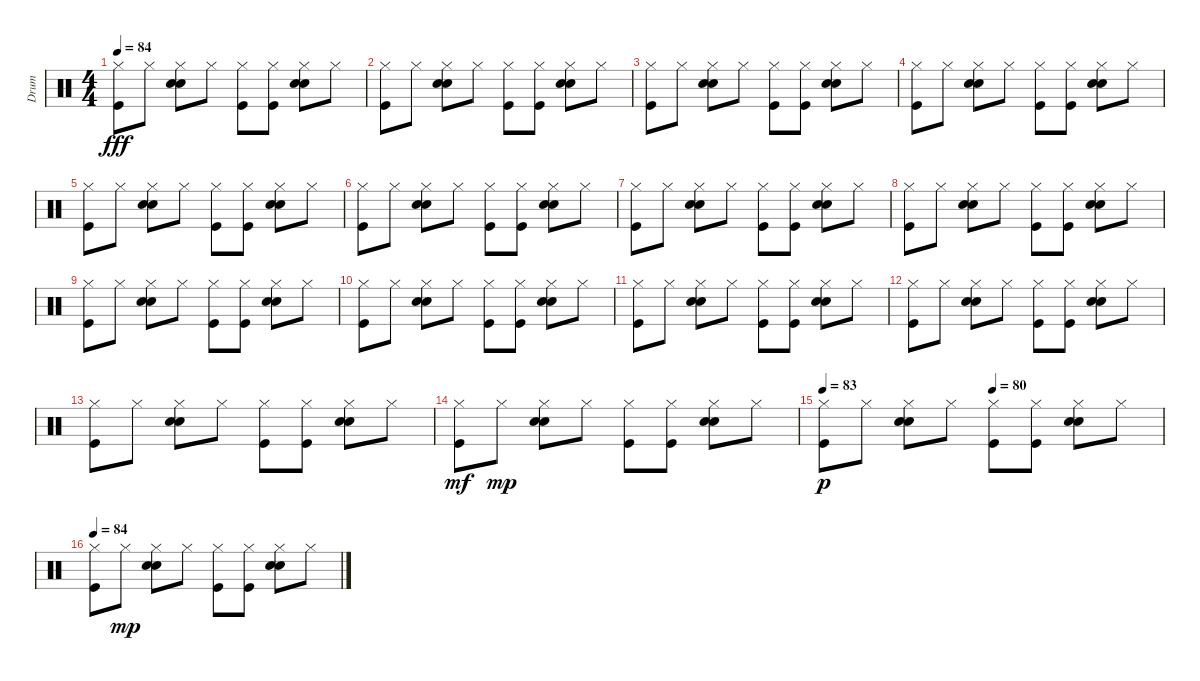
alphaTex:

\track ("Drum" "Drum") {instrument percussion}
\staff {score}
\articulation defaults
\ts (4 4)
\tempo 84
\clef neutral
\ks c
("Hi-Hat (closed)" "Kick (hit)").8{dy fff} "Hi-Hat (closed)".8 ("Hi-Hat (closed)" "Electric Snare (hit)" "Hand Clap (hit)").8 "Hi-Hat (closed)".8 ("Hi-Hat (closed)" "Kick (hit)").8 ("Hi-Hat (closed)" "Kick (hit)").8 ("Hi-Hat (closed)" "Electric Snare (hit)" "Hand Clap (hit)").8 "Hi-Hat (closed)".8 |
("Hi-Hat (closed)" "Kick (hit)").8 "Hi-Hat (closed)".8 ("Hi-Hat (closed)" "Electric Snare (hit)" "Hand Clap (hit)").8 "Hi-Hat (closed)".8 ("Hi-Hat (closed)" "Kick (hit)").8 ("Hi-Hat (closed)" "Kick (hit)").8 ("Hi-Hat (closed)" "Electric Snare (hit)" "Hand Clap (hit)").8 "Hi-Hat (closed)".8 |
("Hi-Hat (closed)" "Kick (hit)").8 "Hi-Hat (closed)".8 ("Hi-Hat (closed)" "Electric Snare (hit)" "Hand Clap (hit)").8 "Hi-Hat (closed)".8 ("Hi-Hat (closed)" "Kick (hit)").8 ("Hi-Hat (closed)" "Kick (hit)").8 ("Hi-Hat (closed)" "Electric Snare (hit)" "Hand Clap (hit)").8 "Hi-Hat (closed)".8 |
("Hi-Hat (closed)" "Kick (hit)").8 "Hi-Hat (closed)".8 ("Hi-Hat (closed)" "Electric Snare (hit)" "Hand Clap (hit)").8 "Hi-Hat (closed)".8 ("Hi-Hat (closed)" "Kick (hit)").8 ("Hi-Hat (closed)" "Kick (hit)").8 ("Hi-Hat (closed)" "Electric Snare (hit)" "Hand Clap (hit)").8 "Hi-Hat (closed)".8 |
("Hi-Hat (closed)" "Kick (hit)").8 "Hi-Hat (closed)".8 ("Hi-Hat (closed)" "Electric Snare (hit)" "Hand Clap (hit)").8 "Hi-Hat (closed)".8 ("Hi-Hat (closed)" "Kick (hit)").8 ("Hi-Hat (closed)" "Kick (hit)").8 ("Hi-Hat (closed)" "Electric Snare (hit)" "Hand Clap (hit)").8 "Hi-Hat (closed)".8 |
("Hi-Hat (closed)" "Kick (hit)").8 "Hi-Hat (closed)".8 ("Hi-Hat (closed)" "Electric Snare (hit)" "Hand Clap (hit)").8 "Hi-Hat (closed)".8 ("Hi-Hat (closed)" "Kick (hit)").8 ("Hi-Hat (closed)" "Kick (hit)").8 ("Hi-Hat (closed)" "Electric Snare (hit)" "Hand Clap (hit)").8 "Hi-Hat (closed)".8 |
("Hi-Hat (closed)" "Kick (hit)").8 "Hi-Hat (closed)".8 ("Hi-Hat (closed)" "Electric Snare (hit)" "Hand Clap (hit)").8 "Hi-Hat (closed)".8 ("Hi-Hat (closed)" "Kick (hit)").8 ("Hi-Hat (closed)" "Kick (hit)").8 ("Hi-Hat (closed)" "Electric Snare (hit)" "Hand Clap (hit)").8 "Hi-Hat (closed)".8 |
("Hi-Hat (closed)" "Kick (hit)").8 "Hi-Hat (closed)".8 ("Hi-Hat (closed)" "Electric Snare (hit)" "Hand Clap (hit)").8 "Hi-Hat (closed)".8 ("Hi-Hat (closed)" "Kick (hit)").8 ("Hi-Hat (closed)" "Kick (hit)").8 ("Hi-Hat (closed)" "Electric Snare (hit)" "Hand Clap (hit)").8 "Hi-Hat (closed)".8 |
("Hi-Hat (closed)" "Kick (hit)").8 "Hi-Hat (closed)".8 ("Hi-Hat (closed)" "Electric Snare (hit)" "Hand Clap (hit)").8 "Hi-Hat (closed)".8 ("Hi-Hat (closed)" "Kick (hit)").8 ("Hi-Hat (closed)" "Kick (hit)").8 ("Hi-Hat (closed)" "Electric Snare (hit)" "Hand Clap (hit)").8 "Hi-Hat (closed)".8 |
("Hi-Hat (closed)" "Kick (hit)").8 "Hi-Hat (closed)".8 ("Hi-Hat (closed)" "Electric Snare (hit)" "Hand Clap (hit)").8 "Hi-Hat (closed)".8 ("Hi-Hat (closed)" "Kick (hit)").8 ("Hi-Hat (closed)" "Kick (hit)").8 ("Hi-Hat (closed)" "Electric Snare (hit)" "Hand Clap (hit)").8 "Hi-Hat (closed)".8 |
("Hi-Hat (closed)" "Kick (hit)").8 "Hi-Hat (closed)".8 ("Hi-Hat (closed)" "Electric Snare (hit)" "Hand Clap (hit)").8 "Hi-Hat (closed)".8 ("Hi-Hat (closed)" "Kick (hit)").8 ("Hi-Hat (closed)" "Kick (hit)").8 ("Hi-Hat (closed)" "Electric Snare (hit)" "Hand Clap (hit)").8 "Hi-Hat (closed)".8 |
("Hi-Hat (closed)" "Kick (hit)").8 "Hi-Hat (closed)".8 ("Hi-Hat (closed)" "Electric Snare (hit)" "Hand Clap (hit)").8 "Hi-Hat (closed)".8 ("Hi-Hat (closed)" "Kick (hit)").8 ("Hi-Hat (closed)" "Kick (hit)").8 ("Hi-Hat (closed)" "Electric Snare (hit)" "Hand Clap (hit)").8 "Hi-Hat (closed)".8 |
("Hi-Hat (closed)" "Kick (hit)").8 "Hi-Hat (closed)".8 ("Hi-Hat (closed)" "Electric Snare (hit)" "Hand Clap (hit)").8 "Hi-Hat (closed)".8 ("Hi-Hat (closed)" "Kick (hit)").8 ("Hi-Hat (closed)" "Kick (hit)").8 ("Hi-Hat (closed)" "Electric Snare (hit)" "Hand Clap (hit)").8 "Hi-Hat (closed)".8 |
("Hi-Hat (closed)" "Kick (hit)").8{dy mf} "Hi-Hat (closed)".8{dy mp} ("Hi-Hat (closed)" "Electric Snare (hit)" "Hand Clap (hit)").8 "Hi-Hat (closed)".8 ("Hi-Hat (closed)" "Kick (hit)").8 ("Hi-Hat (closed)" "Kick (hit)").8 ("Hi-Hat (closed)" "Electric Snare (hit)" "Hand Clap (hit)").8 "Hi-Hat (closed)".8 |
\tempo 83
\tempo (80 0.5)
("Hi-Hat (closed)" "Kick (hit)").8{dy p} "Hi-Hat (closed)".8 ("Hi-Hat (closed)" "Electric Snare (hit)" "Hand Clap (hit)").8 "Hi-Hat (closed)".8 ("Hi-Hat (closed)" "Kick (hit)").8 ("Hi-Hat (closed)" "Kick (hit)").8 ("Hi-Hat (closed)" "Electric Snare (hit)" "Hand Clap (hit)").8 "Hi-Hat (closed)".8 |
\tempo 84
("Hi-Hat (closed)" "Kick (hit)").8 "Hi-Hat (closed)".8{dy mp} ("Hi-Hat (closed)" "Electric Snare (hit)" "Hand Clap (hit)").8 "Hi-Hat (closed)".8 ("Hi-Hat (closed)" "Kick (hit)").8 ("Hi-Hat (closed)" "Kick (hit)").8 ("Hi-Hat (closed)" "Electric Snare (hit)" "Hand Clap (hit)").8 "Hi-Hat (closed)".8
